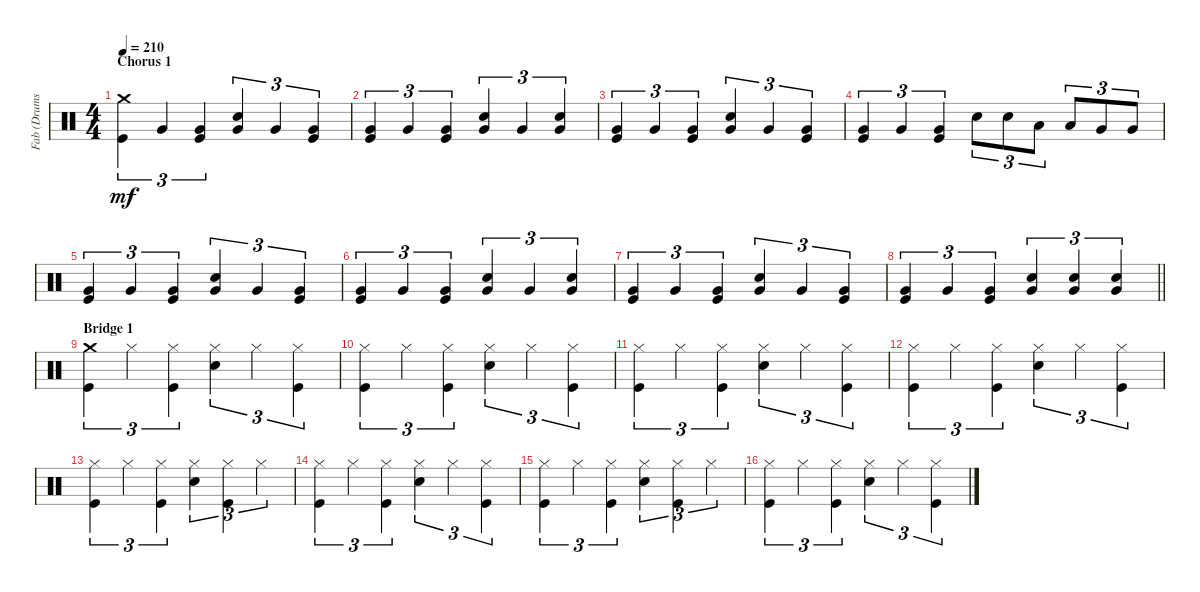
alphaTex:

\track ("Fab (Drums)" "Fab (Drums") {instrument percussion}
\staff {score}
\articulation defaults
\ts (4 4)
\section ("" "Chorus 1")
\tempo 210
\clef neutral
\ks c
("Kick (hit)" "Crash medium (hit)").4{tu (3 2) dy mf} "Very Low Tom (hit)".4{tu (3 2)} ("Very Low Tom (hit)" "Kick (hit)").4{tu (3 2)} ("Very Low Tom (hit)" "Snare (hit) 2").4{tu (3 2)} "Very Low Tom (hit)".4{tu (3 2)} ("Very Low Tom (hit)" "Kick (hit)").4{tu (3 2)} |
("Kick (hit)" "Very Low Tom (hit)").4{tu (3 2)} "Very Low Tom (hit)".4{tu (3 2)} ("Very Low Tom (hit)" "Kick (hit)").4{tu (3 2)} ("Very Low Tom (hit)" "Snare (hit) 2").4{tu (3 2)} "Very Low Tom (hit)".4{tu (3 2)} ("Very Low Tom (hit)" "Snare (hit) 2").4{tu (3 2)} |
("Kick (hit)" "Very Low Tom (hit)").4{tu (3 2)} "Very Low Tom (hit)".4{tu (3 2)} ("Very Low Tom (hit)" "Kick (hit)").4{tu (3 2)} ("Very Low Tom (hit)" "Snare (hit) 2").4{tu (3 2)} "Very Low Tom (hit)".4{tu (3 2)} ("Very Low Tom (hit)" "Kick (hit)").4{tu (3 2)} |
("Kick (hit)" "Very Low Tom (hit)").4{tu (3 2)} "Very Low Tom (hit)".4{tu (3 2)} ("Very Low Tom (hit)" "Kick (hit)").4{tu (3 2)} "Snare (hit) 2".8{tu (3 2)} "Snare (hit) 2".8{tu (3 2)} "Low Tom (hit)".8{tu (3 2)} "Low Tom (hit)".8{tu (3 2)} "Very Low Tom (hit)".8{tu (3 2)} "Very Low Tom (hit)".8{tu (3 2)} |
("Kick (hit)" "Very Low Tom (hit)").4{tu (3 2)} "Very Low Tom (hit)".4{tu (3 2)} ("Very Low Tom (hit)" "Kick (hit)").4{tu (3 2)} ("Very Low Tom (hit)" "Snare (hit) 2").4{tu (3 2)} "Very Low Tom (hit)".4{tu (3 2)} ("Very Low Tom (hit)" "Kick (hit)").4{tu (3 2)} |
("Kick (hit)" "Very Low Tom (hit)").4{tu (3 2)} "Very Low Tom (hit)".4{tu (3 2)} ("Very Low Tom (hit)" "Kick (hit)").4{tu (3 2)} ("Very Low Tom (hit)" "Snare (hit) 2").4{tu (3 2)} "Very Low Tom (hit)".4{tu (3 2)} ("Very Low Tom (hit)" "Snare (hit) 2").4{tu (3 2)} |
("Kick (hit)" "Very Low Tom (hit)").4{tu (3 2)} "Very Low Tom (hit)".4{tu (3 2)} ("Very Low Tom (hit)" "Kick (hit)").4{tu (3 2)} ("Very Low Tom (hit)" "Snare (hit) 2").4{tu (3 2)} "Very Low Tom (hit)".4{tu (3 2)} ("Very Low Tom (hit)" "Kick (hit)").4{tu (3 2)} |
\barLineRight lightlight
("Kick (hit)" "Very Low Tom (hit)").4{tu (3 2)} "Very Low Tom (hit)".4{tu (3 2)} ("Very Low Tom (hit)" "Kick (hit)").4{tu (3 2)} ("Very Low Tom (hit)" "Snare (hit) 2").4{tu (3 2)} ("Very Low Tom (hit)" "Snare (hit) 2").4{tu (3 2)} ("Very Low Tom (hit)" "Snare (hit) 2").4{tu (3 2)} |
\section ("" "Bridge 1")
("Kick (hit)" "Crash medium (hit)").4{tu (3 2)} "Hi-Hat (closed)".4{tu (3 2)} ("Hi-Hat (closed)" "Kick (hit)").4{tu (3 2)} ("Hi-Hat (closed)" "Snare (hit) 2").4{tu (3 2)} "Hi-Hat (closed)".4{tu (3 2)} ("Hi-Hat (closed)" "Kick (hit)").4{tu (3 2)} |
("Kick (hit)" "Hi-Hat (closed)").4{tu (3 2)} "Hi-Hat (closed)".4{tu (3 2)} ("Hi-Hat (closed)" "Kick (hit)").4{tu (3 2)} ("Hi-Hat (closed)" "Snare (hit) 2").4{tu (3 2)} "Hi-Hat (closed)".4{tu (3 2)} ("Hi-Hat (closed)" "Kick (hit)").4{tu (3 2)} |
("Kick (hit)" "Hi-Hat (closed)").4{tu (3 2)} "Hi-Hat (closed)".4{tu (3 2)} ("Hi-Hat (closed)" "Kick (hit)").4{tu (3 2)} ("Hi-Hat (closed)" "Snare (hit) 2").4{tu (3 2)} "Hi-Hat (closed)".4{tu (3 2)} ("Hi-Hat (closed)" "Kick (hit)").4{tu (3 2)} |
("Kick (hit)" "Hi-Hat (closed)").4{tu (3 2)} "Hi-Hat (closed)".4{tu (3 2)} ("Hi-Hat (closed)" "Kick (hit)").4{tu (3 2)} ("Hi-Hat (closed)" "Snare (hit) 2").4{tu (3 2)} "Hi-Hat (closed)".4{tu (3 2)} ("Hi-Hat (closed)" "Kick (hit)").4{tu (3 2)} |
("Kick (hit)" "Hi-Hat (closed)").4{tu (3 2)} "Hi-Hat (closed)".4{tu (3 2)} ("Hi-Hat (closed)" "Kick (hit)").4{tu (3 2)} ("Hi-Hat (closed)" "Snare (hit) 2").4{tu (3 2)} ("Hi-Hat (closed)" "Kick (hit)").4{tu (3 2)} "Hi-Hat (closed)".4{tu (3 2)} |
("Kick (hit)" "Hi-Hat (closed)").4{tu (3 2)} "Hi-Hat (closed)".4{tu (3 2)} ("Hi-Hat (closed)" "Kick (hit)").4{tu (3 2)} ("Hi-Hat (closed)" "Snare (hit) 2").4{tu (3 2)} "Hi-Hat (closed)".4{tu (3 2)} ("Hi-Hat (closed)" "Kick (hit)").4{tu (3 2)} |
("Kick (hit)" "Hi-Hat (closed)").4{tu (3 2)} "Hi-Hat (closed)".4{tu (3 2)} ("Hi-Hat (closed)" "Kick (hit)").4{tu (3 2)} ("Hi-Hat (closed)" "Snare (hit) 2").4{tu (3 2)} ("Hi-Hat (closed)" "Kick (hit)").4{tu (3 2)} "Hi-Hat (closed)".4{tu (3 2)} |
("Kick (hit)" "Hi-Hat (closed)").4{tu (3 2)} "Hi-Hat (closed)".4{tu (3 2)} ("Hi-Hat (closed)" "Kick (hit)").4{tu (3 2)} ("Hi-Hat (closed)" "Snare (hit) 2").4{tu (3 2)} "Hi-Hat (closed)".4{tu (3 2)} ("Hi-Hat (closed)" "Kick (hit)").4{tu (3 2)}
